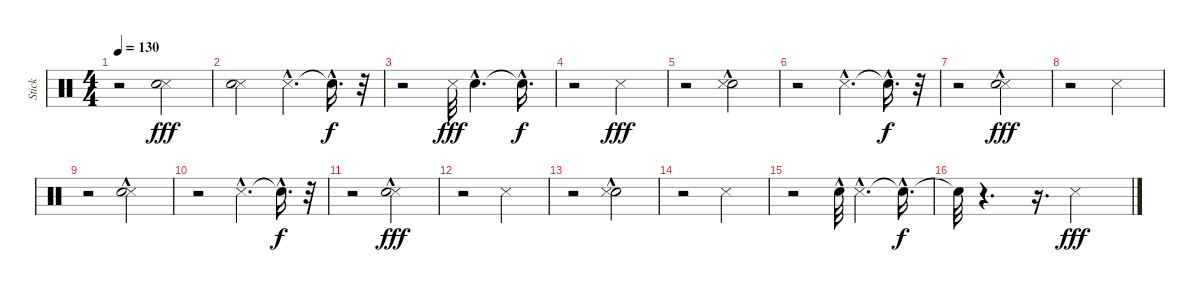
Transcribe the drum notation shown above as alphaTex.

\track ("Stick" "Stick") {instrument percussion}
\staff {score}
\articulation defaults
\ts (4 4)
\tempo 130
\clef neutral
\ks c
r.2{dy fff} ("Snare (side stick) 3" "Snare (hit) 2").2 |
("Snare (side stick) 3" "Snare (hit) 2").2 "Snare (side stick) 3"{hac}.4{d} "Snare (hit)"{hac t}.16{d dy f} r.32 |
r.2 "Snare (side stick) 3".32{dy fff} "Snare (hit) 2"{hac}.4{d} "Snare (hit)"{hac t}.16{d dy f} |
r.2 "Snare (side stick) 3".2{dy fff} |
r.2 ("Snare (hit) 2" "Snare (side stick) 3"{hac}).2 |
r.2 "Snare (side stick) 3"{hac}.4{d} "Snare (hit)"{hac t}.16{d dy f} r.32 |
r.2 ("Snare (side stick) 3" "Snare (hit) 2"{hac}).2{dy fff} |
r.2 "Snare (side stick) 3".2 |
r.2 ("Snare (side stick) 3" "Snare (hit) 2"{hac}).2 |
r.2 "Snare (side stick) 3"{hac}.4{d} "Snare (hit)"{hac t}.16{d dy f} r.32 |
r.2 ("Snare (side stick) 3" "Snare (hit) 2"{hac}).2{dy fff} |
r.2 "Snare (side stick) 3".2 |
r.2 ("Snare (hit) 2"{hac} "Snare (side stick) 3").2 |
r.2 "Snare (side stick) 3".2 |
r.2 "Snare (hit) 2"{hac}.32 "Snare (side stick) 3"{hac}.4{d} "Snare (hit)"{hac t}.16{d dy f} |
"Snare (hit)"{t}.32 r.4{d} r.16{d} "Snare (side stick) 3".2{dy fff}
